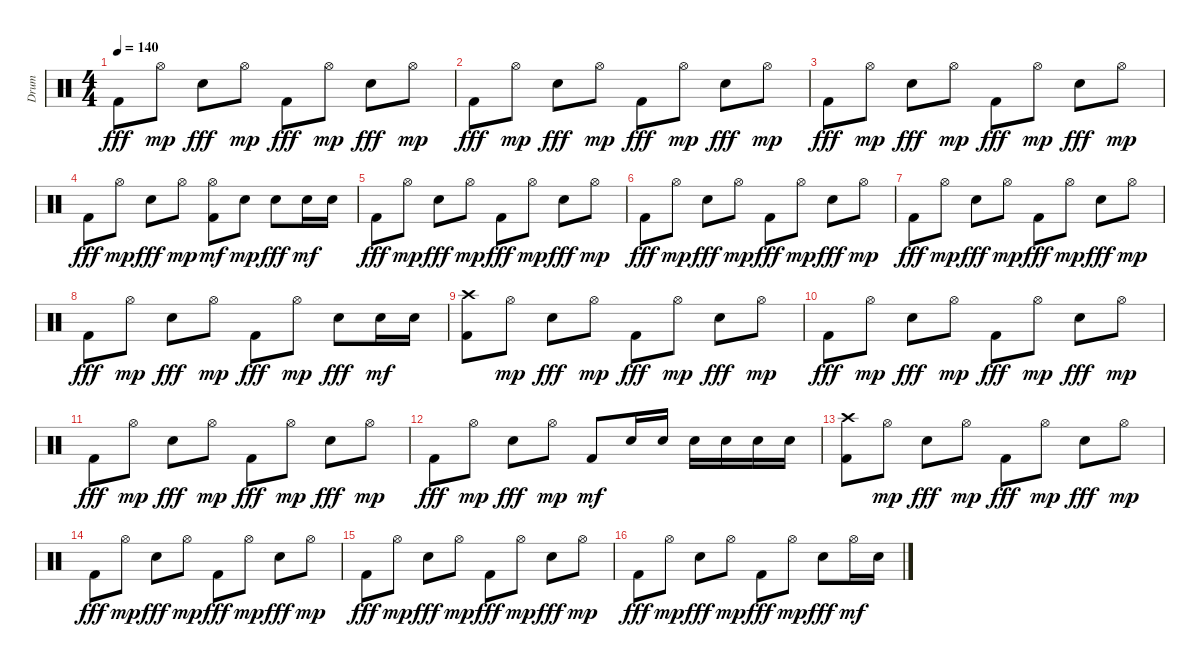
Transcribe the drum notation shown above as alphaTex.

\track ("Drum" "Drum") {instrument percussion}
\staff {score}
\articulation defaults
\ts (4 4)
\tempo 140
\clef neutral
\ks c "Kick (hit) 2".8{dy fff} "Hi-Hat (open)".8{dy mp} "Electric Snare (hit)".8{dy fff} "Hi-Hat (open)".8{dy mp} "Kick (hit) 2".8{dy fff} "Hi-Hat (open)".8{dy mp} "Electric Snare (hit)".8{dy fff} "Hi-Hat (open)".8{dy mp}
|
"Kick (hit) 2".8{dy fff} "Hi-Hat (open)".8{dy mp} "Electric Snare (hit)".8{dy fff} "Hi-Hat (open)".8{dy mp} "Kick (hit) 2".8{dy fff} "Hi-Hat (open)".8{dy mp} "Electric Snare (hit)".8{dy fff} "Hi-Hat (open)".8{dy mp} |
"Kick (hit) 2".8{dy fff} "Hi-Hat (open)".8{dy mp} "Electric Snare (hit)".8{dy fff} "Hi-Hat (open)".8{dy mp} "Kick (hit) 2".8{dy fff} "Hi-Hat (open)".8{dy mp} "Electric Snare (hit)".8{dy fff} "Hi-Hat (open)".8{dy mp} |
"Kick (hit) 2".8{dy fff} "Hi-Hat (open)".8{dy mp} "Electric Snare (hit)".8{dy fff} "Hi-Hat (open)".8{dy mp} ("Kick (hit) 2" "Hi-Hat (open)").8{dy mf} "Electric Snare (hit)".8{dy mp} "Electric Snare (hit)".8{dy fff} "Electric Snare (hit)".16{dy mf} "Electric Snare (hit)".16 |
"Kick (hit) 2".8{dy fff} "Hi-Hat (open)".8{dy mp} "Electric Snare (hit)".8{dy fff} "Hi-Hat (open)".8{dy mp} "Kick (hit) 2".8{dy fff} "Hi-Hat (open)".8{dy mp} "Electric Snare (hit)".8{dy fff} "Hi-Hat (open)".8{dy mp} |
"Kick (hit) 2".8{dy fff} "Hi-Hat (open)".8{dy mp} "Electric Snare (hit)".8{dy fff} "Hi-Hat (open)".8{dy mp} "Kick (hit) 2".8{dy fff} "Hi-Hat (open)".8{dy mp} "Electric Snare (hit)".8{dy fff} "Hi-Hat (open)".8{dy mp} |
"Kick (hit) 2".8{dy fff} "Hi-Hat (open)".8{dy mp} "Electric Snare (hit)".8{dy fff} "Hi-Hat (open)".8{dy mp} "Kick (hit) 2".8{dy fff} "Hi-Hat (open)".8{dy mp} "Electric Snare (hit)".8{dy fff} "Hi-Hat (open)".8{dy mp} |
"Kick (hit) 2".8{dy fff} "Hi-Hat (open)".8{dy mp} "Electric Snare (hit)".8{dy fff} "Hi-Hat (open)".8{dy mp} "Kick (hit) 2".8{dy fff} "Hi-Hat (open)".8{dy mp} "Electric Snare (hit)".8{dy fff} "Electric Snare (hit)".16{dy mf} "Electric Snare (hit)".16 |
("Kick (hit) 2" "Crash high (hit)").8 "Hi-Hat (open)".8{dy mp} "Electric Snare (hit)".8{dy fff} "Hi-Hat (open)".8{dy mp} "Kick (hit) 2".8{dy fff} "Hi-Hat (open)".8{dy mp} "Electric Snare (hit)".8{dy fff} "Hi-Hat (open)".8{dy mp} |
"Kick (hit) 2".8{dy fff} "Hi-Hat (open)".8{dy mp} "Electric Snare (hit)".8{dy fff} "Hi-Hat (open)".8{dy mp} "Kick (hit) 2".8{dy fff} "Hi-Hat (open)".8{dy mp} "Electric Snare (hit)".8{dy fff} "Hi-Hat (open)".8{dy mp} |
"Kick (hit) 2".8{dy fff} "Hi-Hat (open)".8{dy mp} "Electric Snare (hit)".8{dy fff} "Hi-Hat (open)".8{dy mp} "Kick (hit) 2".8{dy fff} "Hi-Hat (open)".8{dy mp} "Electric Snare (hit)".8{dy fff} "Hi-Hat (open)".8{dy mp} |
"Kick (hit) 2".8{dy fff} "Hi-Hat (open)".8{dy mp} "Electric Snare (hit)".8{dy fff} "Hi-Hat (open)".8{dy mp} "Kick (hit) 2".8{dy mf} "Electric Snare (hit)".16 "Electric Snare (hit)".16 "Electric Snare (hit)".16 "Electric Snare (hit)".16 "Electric Snare (hit)".16 "Electric Snare (hit)".16 |
("Kick (hit) 2" "Crash high (hit)").8 "Hi-Hat (open)".8{dy mp} "Electric Snare (hit)".8{dy fff} "Hi-Hat (open)".8{dy mp} "Kick (hit) 2".8{dy fff} "Hi-Hat (open)".8{dy mp} "Electric Snare (hit)".8{dy fff} "Hi-Hat (open)".8{dy mp} |
"Kick (hit) 2".8{dy fff} "Hi-Hat (open)".8{dy mp} "Electric Snare (hit)".8{dy fff} "Hi-Hat (open)".8{dy mp} "Kick (hit) 2".8{dy fff} "Hi-Hat (open)".8{dy mp} "Electric Snare (hit)".8{dy fff} "Hi-Hat (open)".8{dy mp} |
"Kick (hit) 2".8{dy fff} "Hi-Hat (open)".8{dy mp} "Electric Snare (hit)".8{dy fff} "Hi-Hat (open)".8{dy mp} "Kick (hit) 2".8{dy fff} "Hi-Hat (open)".8{dy mp} "Electric Snare (hit)".8{dy fff} "Hi-Hat (open)".8{dy mp} |
"Kick (hit) 2".8{dy fff} "Hi-Hat (open)".8{dy mp} "Electric Snare (hit)".8{dy fff} "Hi-Hat (open)".8{dy mp} "Kick (hit) 2".8{dy fff} "Hi-Hat (open)".8{dy mp} "Electric Snare (hit)".8{dy fff} "Hi-Hat (open)".16{dy mf} "Electric Snare (hit)".16
